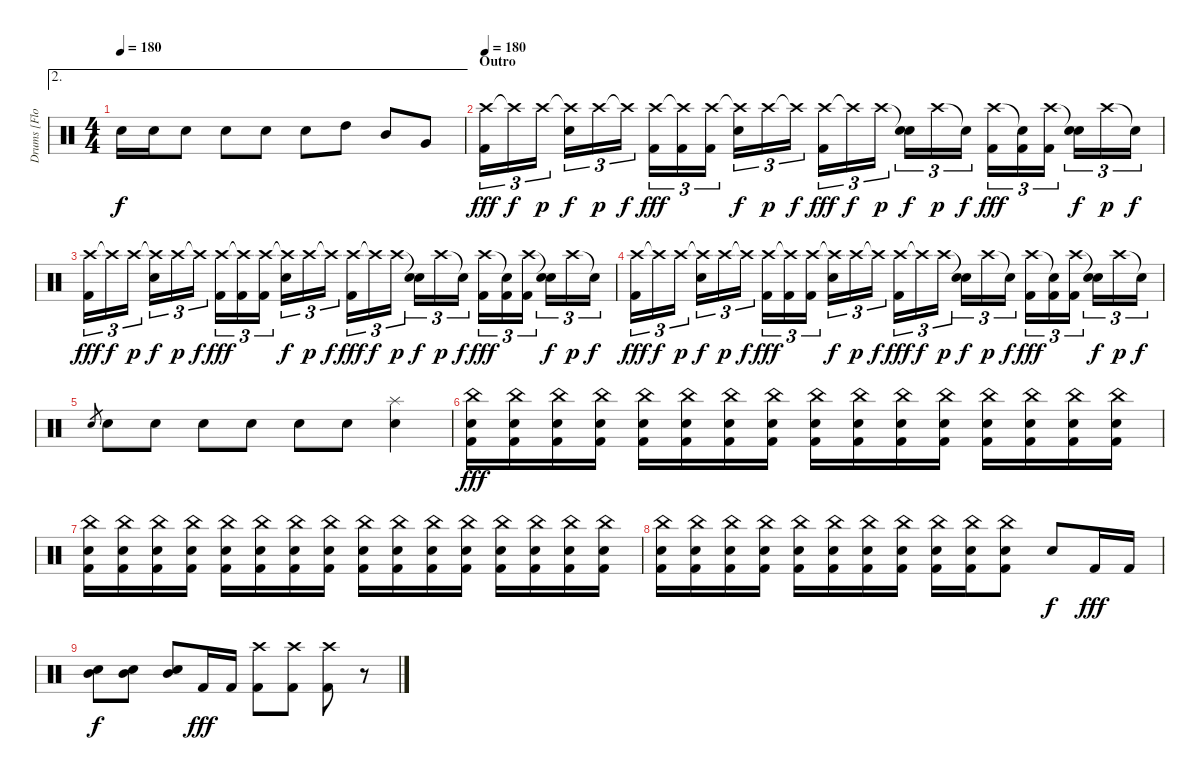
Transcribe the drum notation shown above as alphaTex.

\track ("Drums [Flo Mounier]" "Drums [Flo") {instrument percussion}
\staff {score}
\articulation defaults
\ae 2
\ts (4 4)
\tempo 180
\clef neutral
\ks c "Electric Snare (hit)".16{dy f} "Electric Snare (hit)".16 "Electric Snare (hit)".8 "Electric Snare (hit)".8 "Electric Snare (hit)".8 "Electric Snare (hit)".8 "High Tom (hit)".8 "Mid Tom (hit)".8 "Very Low Tom (hit)".8
|
\section ("" "Outro")
\tempo 180
("Crash high (hit)" "Kick (hit) 2").16{tu (3 2) dy fff} "Crash high (hit)"{t}.16{tu (3 2) dy f} "Crash high (hit)".16{tu (3 2) dy p} ("Crash high (hit)"{t} "Electric Snare (hit)").16{tu (3 2) dy f} "Crash high (hit)".16{tu (3 2) dy p} "Crash high (hit)"{t}.16{tu (3 2) dy f} ("Crash high (hit)" "Kick (hit) 2").16{tu (3 2) dy fff} ("Crash high (hit)"{t} "Kick (hit) 2").16{tu (3 2)} ("Crash high (hit)" "Kick (hit) 2").16{tu (3 2)} ("Crash high (hit)"{t} "Electric Snare (hit)").16{tu (3 2) dy f} "Crash high (hit)".16{tu (3 2) dy p} "Crash high (hit)"{t}.16{tu (3 2) dy f} ("Crash high (hit)" "Kick (hit) 2").16{tu (3 2) dy fff} "Crash high (hit)"{t}.16{tu (3 2) dy f} "Crash high (hit)".16{tu (3 2) dy p} ("Snare (hit)"{t} "Electric Snare (hit)").16{tu (3 2) dy f} "Crash high (hit)".16{tu (3 2) dy p} "Snare (hit)"{t}.16{tu (3 2) dy f} ("Crash high (hit)" "Kick (hit) 2").16{tu (3 2) dy fff} ("Snare (hit)"{t} "Kick (hit) 2").16{tu (3 2)} ("Crash high (hit)" "Kick (hit) 2").16{tu (3 2)} ("Snare (hit)"{t} "Electric Snare (hit)").16{tu (3 2) dy f} "Crash high (hit)".16{tu (3 2) dy p} "Snare (hit)"{t}.16{tu (3 2) dy f} |
("Crash high (hit)" "Kick (hit) 2").16{tu (3 2) dy fff} "Crash high (hit)"{t}.16{tu (3 2) dy f} "Crash high (hit)".16{tu (3 2) dy p} ("Crash high (hit)"{t} "Electric Snare (hit)").16{tu (3 2) dy f} "Crash high (hit)".16{tu (3 2) dy p} "Crash high (hit)"{t}.16{tu (3 2) dy f} ("Crash high (hit)" "Kick (hit) 2").16{tu (3 2) dy fff} ("Crash high (hit)"{t} "Kick (hit) 2").16{tu (3 2)} ("Crash high (hit)" "Kick (hit) 2").16{tu (3 2)} ("Crash high (hit)"{t} "Electric Snare (hit)").16{tu (3 2) dy f} "Crash high (hit)".16{tu (3 2) dy p} "Crash high (hit)"{t}.16{tu (3 2) dy f} ("Crash high (hit)" "Kick (hit) 2").16{tu (3 2) dy fff} "Crash high (hit)"{t}.16{tu (3 2) dy f} "Crash high (hit)".16{tu (3 2) dy p} ("Snare (hit)"{t} "Electric Snare (hit)").16{tu (3 2) dy f} "Crash high (hit)".16{tu (3 2) dy p} "Snare (hit)"{t}.16{tu (3 2) dy f} ("Crash high (hit)" "Kick (hit) 2").16{tu (3 2) dy fff} ("Snare (hit)"{t} "Kick (hit) 2").16{tu (3 2)} ("Crash high (hit)" "Kick (hit) 2").16{tu (3 2)} ("Snare (hit)"{t} "Electric Snare (hit)").16{tu (3 2) dy f} "Crash high (hit)".16{tu (3 2) dy p} "Snare (hit)"{t}.16{tu (3 2) dy f} |
("Crash high (hit)" "Kick (hit) 2").16{tu (3 2) dy fff} "Crash high (hit)"{t}.16{tu (3 2) dy f} "Crash high (hit)".16{tu (3 2) dy p} ("Crash high (hit)"{t} "Electric Snare (hit)").16{tu (3 2) dy f} "Crash high (hit)".16{tu (3 2) dy p} "Crash high (hit)"{t}.16{tu (3 2) dy f} ("Crash high (hit)" "Kick (hit) 2").16{tu (3 2) dy fff} ("Crash high (hit)"{t} "Kick (hit) 2").16{tu (3 2)} ("Crash high (hit)" "Kick (hit) 2").16{tu (3 2)} ("Crash high (hit)"{t} "Electric Snare (hit)").16{tu (3 2) dy f} "Crash high (hit)".16{tu (3 2) dy p} "Crash high (hit)"{t}.16{tu (3 2) dy f} ("Crash high (hit)" "Kick (hit) 2").16{tu (3 2) dy fff} "Crash high (hit)"{t}.16{tu (3 2) dy f} "Crash high (hit)".16{tu (3 2) dy p} ("Snare (hit)"{t} "Electric Snare (hit)").16{tu (3 2) dy f} "Crash high (hit)".16{tu (3 2) dy p} "Snare (hit)"{t}.16{tu (3 2) dy f} ("Crash high (hit)" "Kick (hit) 2").16{tu (3 2) dy fff} ("Snare (hit)"{t} "Kick (hit) 2").16{tu (3 2)} ("Crash high (hit)" "Kick (hit) 2").16{tu (3 2)} ("Snare (hit)"{t} "Electric Snare (hit)").16{tu (3 2) dy f} "Crash high (hit)".16{tu (3 2) dy p} "Snare (hit)"{t}.16{tu (3 2) dy f} |
"Electric Snare (hit)".8{gr} "Electric Snare (hit)".8 "Electric Snare (hit)".8 "Electric Snare (hit)".8 "Electric Snare (hit)".8 "Electric Snare (hit)".8 "Electric Snare (hit)".8 ("Splash (hit)" "Electric Snare (hit)").4 |
("China (hit)" "Electric Snare (hit)" "Kick (hit) 2").16{dy fff} ("China (hit)" "Electric Snare (hit)" "Kick (hit) 2").16 ("China (hit)" "Electric Snare (hit)" "Kick (hit) 2").16 ("China (hit)" "Electric Snare (hit)" "Kick (hit) 2").16 ("China (hit)" "Electric Snare (hit)" "Kick (hit) 2").16 ("China (hit)" "Electric Snare (hit)" "Kick (hit) 2").16 ("China (hit)" "Electric Snare (hit)" "Kick (hit) 2").16 ("China (hit)" "Electric Snare (hit)" "Kick (hit) 2").16 ("China (hit)" "Electric Snare (hit)" "Kick (hit) 2").16 ("China (hit)" "Electric Snare (hit)" "Kick (hit) 2").16 ("China (hit)" "Electric Snare (hit)" "Kick (hit) 2").16 ("China (hit)" "Electric Snare (hit)" "Kick (hit) 2").16 ("China (hit)" "Electric Snare (hit)" "Kick (hit) 2").16 ("China (hit)" "Electric Snare (hit)" "Kick (hit) 2").16 ("China (hit)" "Electric Snare (hit)" "Kick (hit) 2").16 ("China (hit)" "Electric Snare (hit)" "Kick (hit) 2").16 |
("China (hit)" "Electric Snare (hit)" "Kick (hit) 2").16 ("China (hit)" "Electric Snare (hit)" "Kick (hit) 2").16 ("China (hit)" "Electric Snare (hit)" "Kick (hit) 2").16 ("China (hit)" "Electric Snare (hit)" "Kick (hit) 2").16 ("China (hit)" "Electric Snare (hit)" "Kick (hit) 2").16 ("China (hit)" "Electric Snare (hit)" "Kick (hit) 2").16 ("China (hit)" "Electric Snare (hit)" "Kick (hit) 2").16 ("China (hit)" "Electric Snare (hit)" "Kick (hit) 2").16 ("China (hit)" "Electric Snare (hit)" "Kick (hit) 2").16 ("China (hit)" "Electric Snare (hit)" "Kick (hit) 2").16 ("China (hit)" "Electric Snare (hit)" "Kick (hit) 2").16 ("China (hit)" "Electric Snare (hit)" "Kick (hit) 2").16 ("China (hit)" "Electric Snare (hit)" "Kick (hit) 2").16 ("China (hit)" "Electric Snare (hit)" "Kick (hit) 2").16 ("China (hit)" "Electric Snare (hit)" "Kick (hit) 2").16 ("China (hit)" "Electric Snare (hit)" "Kick (hit) 2").16 |
("China (hit)" "Electric Snare (hit)" "Kick (hit) 2").16 ("China (hit)" "Electric Snare (hit)" "Kick (hit) 2").16 ("China (hit)" "Electric Snare (hit)" "Kick (hit) 2").16 ("China (hit)" "Electric Snare (hit)" "Kick (hit) 2").16 ("China (hit)" "Electric Snare (hit)" "Kick (hit) 2").16 ("China (hit)" "Electric Snare (hit)" "Kick (hit) 2").16 ("China (hit)" "Electric Snare (hit)" "Kick (hit) 2").16 ("China (hit)" "Electric Snare (hit)" "Kick (hit) 2").16 ("China (hit)" "Electric Snare (hit)" "Kick (hit) 2").16 ("China (hit)" "Electric Snare (hit)" "Kick (hit) 2").16 ("China (hit)" "Electric Snare (hit)" "Kick (hit) 2").8 "Electric Snare (hit)".8{dy f} "Kick (hit) 2".16{dy fff} "Kick (hit) 2".16 |
("Electric Snare (hit)" "Mid Tom (hit)").8{dy f} ("Electric Snare (hit)" "Mid Tom (hit)").8 ("Electric Snare (hit)" "Mid Tom (hit)").8 "Kick (hit) 2".16{dy fff} "Kick (hit) 2".16 ("Crash high (hit)" "Kick (hit) 2").8 ("Crash high (hit)" "Kick (hit) 2").8 ("Crash high (hit)" "Kick (hit) 2").8 r.8{volume 0}
